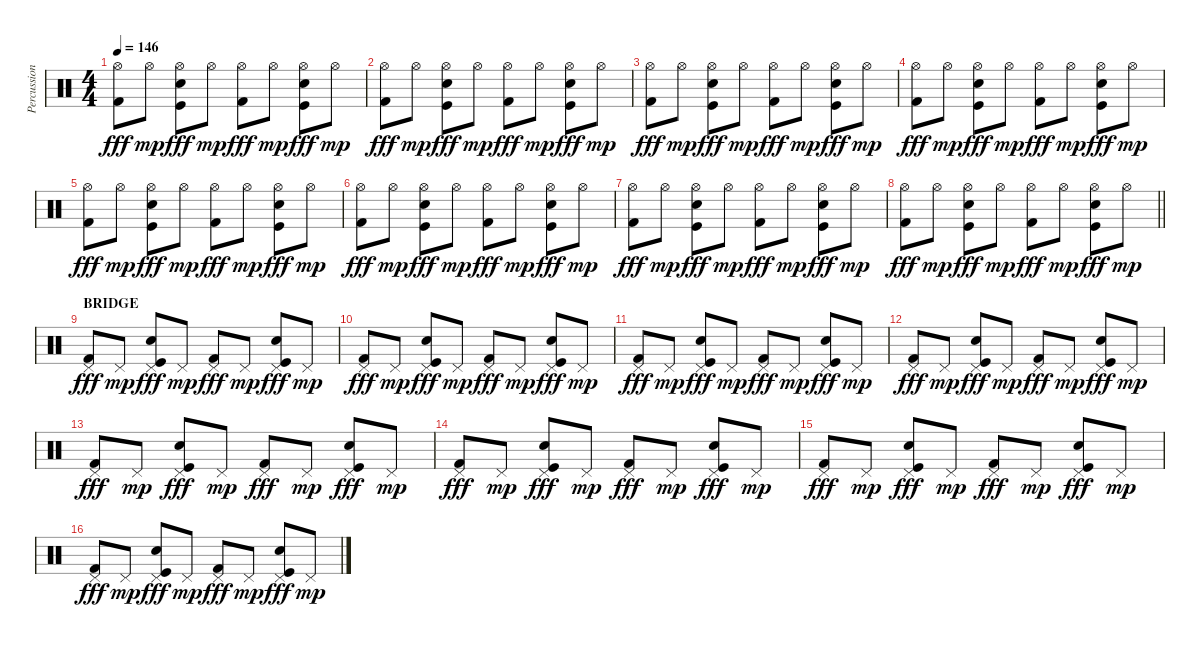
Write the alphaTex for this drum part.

\track ("Percussion" "Percussion") {instrument percussion}
\staff {score}
\articulation defaults
\ts (4 4)
\tempo 146
\clef neutral
\ks c
("Hi-Hat (open)" "Kick (hit) 2").8{dy fff} "Hi-Hat (open)".8{dy mp} ("Hi-Hat (open)" "Kick (hit)" "Snare (hit) 2").8{dy fff} "Hi-Hat (open)".8{dy mp} ("Hi-Hat (open)" "Kick (hit) 2").8{dy fff} "Hi-Hat (open)".8{dy mp} ("Hi-Hat (open)" "Kick (hit)" "Snare (hit) 2").8{dy fff} "Hi-Hat (open)".8{dy mp} |
("Hi-Hat (open)" "Kick (hit) 2").8{dy fff} "Hi-Hat (open)".8{dy mp} ("Hi-Hat (open)" "Kick (hit)" "Snare (hit) 2").8{dy fff} "Hi-Hat (open)".8{dy mp} ("Hi-Hat (open)" "Kick (hit) 2").8{dy fff} "Hi-Hat (open)".8{dy mp} ("Hi-Hat (open)" "Kick (hit)" "Snare (hit) 2").8{dy fff} "Hi-Hat (open)".8{dy mp} |
("Hi-Hat (open)" "Kick (hit) 2").8{dy fff} "Hi-Hat (open)".8{dy mp} ("Hi-Hat (open)" "Kick (hit)" "Snare (hit) 2").8{dy fff} "Hi-Hat (open)".8{dy mp} ("Hi-Hat (open)" "Kick (hit) 2").8{dy fff} "Hi-Hat (open)".8{dy mp} ("Hi-Hat (open)" "Kick (hit)" "Snare (hit) 2").8{dy fff} "Hi-Hat (open)".8{dy mp} |
("Hi-Hat (open)" "Kick (hit) 2").8{dy fff} "Hi-Hat (open)".8{dy mp} ("Hi-Hat (open)" "Kick (hit)" "Snare (hit) 2").8{dy fff} "Hi-Hat (open)".8{dy mp} ("Hi-Hat (open)" "Kick (hit) 2").8{dy fff} "Hi-Hat (open)".8{dy mp} ("Hi-Hat (open)" "Kick (hit)" "Snare (hit) 2").8{dy fff} "Hi-Hat (open)".8{dy mp} |
("Hi-Hat (open)" "Kick (hit) 2").8{dy fff} "Hi-Hat (open)".8{dy mp} ("Hi-Hat (open)" "Kick (hit)" "Snare (hit) 2").8{dy fff} "Hi-Hat (open)".8{dy mp} ("Hi-Hat (open)" "Kick (hit) 2").8{dy fff} "Hi-Hat (open)".8{dy mp} ("Hi-Hat (open)" "Kick (hit)" "Snare (hit) 2").8{dy fff} "Hi-Hat (open)".8{dy mp} |
("Hi-Hat (open)" "Kick (hit) 2").8{dy fff} "Hi-Hat (open)".8{dy mp} ("Hi-Hat (open)" "Kick (hit)" "Snare (hit) 2").8{dy fff} "Hi-Hat (open)".8{dy mp} ("Hi-Hat (open)" "Kick (hit) 2").8{dy fff} "Hi-Hat (open)".8{dy mp} ("Hi-Hat (open)" "Kick (hit)" "Snare (hit) 2").8{dy fff} "Hi-Hat (open)".8{dy mp} |
("Hi-Hat (open)" "Kick (hit) 2").8{dy fff} "Hi-Hat (open)".8{dy mp} ("Hi-Hat (open)" "Kick (hit)" "Snare (hit) 2").8{dy fff} "Hi-Hat (open)".8{dy mp} ("Hi-Hat (open)" "Kick (hit) 2").8{dy fff} "Hi-Hat (open)".8{dy mp} ("Hi-Hat (open)" "Kick (hit)" "Snare (hit) 2").8{dy fff} "Hi-Hat (open)".8{dy mp} |
\barLineRight lightlight
("Hi-Hat (open)" "Kick (hit) 2").8{dy fff} "Hi-Hat (open)".8{dy mp} ("Hi-Hat (open)" "Kick (hit)" "Snare (hit) 2").8{dy fff} "Hi-Hat (open)".8{dy mp} ("Hi-Hat (open)" "Kick (hit) 2").8{dy fff} "Hi-Hat (open)".8{dy mp} ("Hi-Hat (open)" "Kick (hit)" "Snare (hit) 2").8{dy fff} "Hi-Hat (open)".8{dy mp} |
\section ("" "BRIDGE")
("Pedal Hi-Hat (hit)" "Kick (hit) 2").8{dy fff} "Pedal Hi-Hat (hit)".8{dy mp} ("Pedal Hi-Hat (hit)" "Kick (hit)" "Snare (hit) 2").8{dy fff} "Pedal Hi-Hat (hit)".8{dy mp} ("Pedal Hi-Hat (hit)" "Kick (hit) 2").8{dy fff} "Pedal Hi-Hat (hit)".8{dy mp} ("Pedal Hi-Hat (hit)" "Kick (hit)" "Snare (hit) 2").8{dy fff} "Pedal Hi-Hat (hit)".8{dy mp} |
("Pedal Hi-Hat (hit)" "Kick (hit) 2").8{dy fff} "Pedal Hi-Hat (hit)".8{dy mp} ("Pedal Hi-Hat (hit)" "Kick (hit)" "Snare (hit) 2").8{dy fff} "Pedal Hi-Hat (hit)".8{dy mp} ("Pedal Hi-Hat (hit)" "Kick (hit) 2").8{dy fff} "Pedal Hi-Hat (hit)".8{dy mp} ("Pedal Hi-Hat (hit)" "Kick (hit)" "Snare (hit) 2").8{dy fff} "Pedal Hi-Hat (hit)".8{dy mp} |
("Pedal Hi-Hat (hit)" "Kick (hit) 2").8{dy fff} "Pedal Hi-Hat (hit)".8{dy mp} ("Pedal Hi-Hat (hit)" "Kick (hit)" "Snare (hit) 2").8{dy fff} "Pedal Hi-Hat (hit)".8{dy mp} ("Pedal Hi-Hat (hit)" "Kick (hit) 2").8{dy fff} "Pedal Hi-Hat (hit)".8{dy mp} ("Pedal Hi-Hat (hit)" "Kick (hit)" "Snare (hit) 2").8{dy fff} "Pedal Hi-Hat (hit)".8{dy mp} |
("Pedal Hi-Hat (hit)" "Kick (hit) 2").8{dy fff} "Pedal Hi-Hat (hit)".8{dy mp} ("Pedal Hi-Hat (hit)" "Kick (hit)" "Snare (hit) 2").8{dy fff} "Pedal Hi-Hat (hit)".8{dy mp} ("Pedal Hi-Hat (hit)" "Kick (hit) 2").8{dy fff} "Pedal Hi-Hat (hit)".8{dy mp} ("Pedal Hi-Hat (hit)" "Kick (hit)" "Snare (hit) 2").8{dy fff} "Pedal Hi-Hat (hit)".8{dy mp} |
("Pedal Hi-Hat (hit)" "Kick (hit) 2").8{dy fff} "Pedal Hi-Hat (hit)".8{dy mp} ("Pedal Hi-Hat (hit)" "Kick (hit)" "Snare (hit) 2").8{dy fff} "Pedal Hi-Hat (hit)".8{dy mp} ("Pedal Hi-Hat (hit)" "Kick (hit) 2").8{dy fff} "Pedal Hi-Hat (hit)".8{dy mp} ("Pedal Hi-Hat (hit)" "Kick (hit)" "Snare (hit) 2").8{dy fff} "Pedal Hi-Hat (hit)".8{dy mp} |
("Pedal Hi-Hat (hit)" "Kick (hit) 2").8{dy fff} "Pedal Hi-Hat (hit)".8{dy mp} ("Pedal Hi-Hat (hit)" "Kick (hit)" "Snare (hit) 2").8{dy fff} "Pedal Hi-Hat (hit)".8{dy mp} ("Pedal Hi-Hat (hit)" "Kick (hit) 2").8{dy fff} "Pedal Hi-Hat (hit)".8{dy mp} ("Pedal Hi-Hat (hit)" "Kick (hit)" "Snare (hit) 2").8{dy fff} "Pedal Hi-Hat (hit)".8{dy mp} |
("Pedal Hi-Hat (hit)" "Kick (hit) 2").8{dy fff} "Pedal Hi-Hat (hit)".8{dy mp} ("Pedal Hi-Hat (hit)" "Kick (hit)" "Snare (hit) 2").8{dy fff} "Pedal Hi-Hat (hit)".8{dy mp} ("Pedal Hi-Hat (hit)" "Kick (hit) 2").8{dy fff} "Pedal Hi-Hat (hit)".8{dy mp} ("Pedal Hi-Hat (hit)" "Kick (hit)" "Snare (hit) 2").8{dy fff} "Pedal Hi-Hat (hit)".8{dy mp} |
("Pedal Hi-Hat (hit)" "Kick (hit) 2").8{dy fff} "Pedal Hi-Hat (hit)".8{dy mp} ("Pedal Hi-Hat (hit)" "Kick (hit)" "Snare (hit) 2").8{dy fff} "Pedal Hi-Hat (hit)".8{dy mp} ("Pedal Hi-Hat (hit)" "Kick (hit) 2").8{dy fff} "Pedal Hi-Hat (hit)".8{dy mp} ("Pedal Hi-Hat (hit)" "Kick (hit)" "Snare (hit) 2").8{dy fff} "Pedal Hi-Hat (hit)".8{dy mp}
